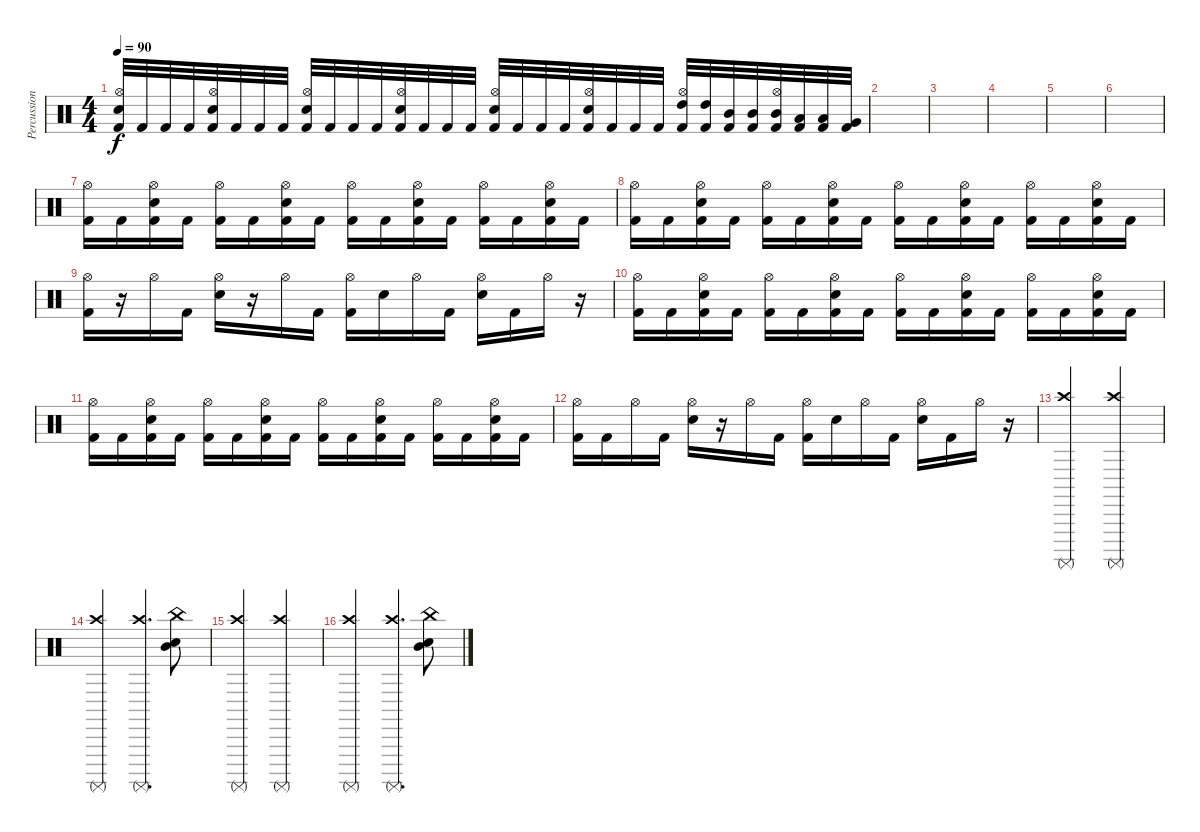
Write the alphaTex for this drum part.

\track ("Percussion" "Percussion") {instrument percussion}
\staff {score}
\articulation defaults
\ts (4 4)
\tempo 90
\clef neutral
\ks c
("Kick (hit) 2" "Hi-Hat (open)" "Electric Snare (hit)").32{dy f} "Kick (hit) 2".32 "Kick (hit) 2".32 "Kick (hit) 2".32 ("Kick (hit) 2" "Hi-Hat (open)" "Electric Snare (hit)").32 "Kick (hit) 2".32 "Kick (hit) 2".32 "Kick (hit) 2".32 ("Kick (hit) 2" "Hi-Hat (open)" "Electric Snare (hit)").32 "Kick (hit) 2".32 "Kick (hit) 2".32 "Kick (hit) 2".32 ("Kick (hit) 2" "Hi-Hat (open)" "Electric Snare (hit)").32 "Kick (hit) 2".32 "Kick (hit) 2".32 "Kick (hit) 2".32 ("Kick (hit) 2" "Hi-Hat (open)" "Electric Snare (hit)").32 "Kick (hit) 2".32 "Kick (hit) 2".32 "Kick (hit) 2".32 ("Kick (hit) 2" "Hi-Hat (open)" "Electric Snare (hit)").32 "Kick (hit) 2".32 "Kick (hit) 2".32 "Kick (hit) 2".32 ("Kick (hit) 2" "High Tom (hit)" "Hi-Hat (open)").32 ("Kick (hit) 2" "High Tom (hit)").32 ("Kick (hit) 2" "Mid Tom (hit)").32 ("Kick (hit) 2" "Mid Tom (hit)").32 ("Kick (hit) 2" "Mid Tom (hit)" "Hi-Hat (open)").32 ("Kick (hit) 2" "Low Tom (hit)").32 ("Kick (hit) 2" "Low Tom (hit)").32 ("Kick (hit) 2" "Very Low Tom (hit)").32 |
|
|
|
|
|
("Kick (hit) 2" "Hi-Hat (open)").16 "Kick (hit) 2".16 ("Kick (hit) 2" "Electric Snare (hit)" "Hi-Hat (open)").16 "Kick (hit) 2".16 ("Kick (hit) 2" "Hi-Hat (open)").16 "Kick (hit) 2".16 ("Kick (hit) 2" "Electric Snare (hit)" "Hi-Hat (open)").16 "Kick (hit) 2".16 ("Kick (hit) 2" "Hi-Hat (open)").16 "Kick (hit) 2".16 ("Kick (hit) 2" "Electric Snare (hit)" "Hi-Hat (open)").16 "Kick (hit) 2".16 ("Kick (hit) 2" "Hi-Hat (open)").16 "Kick (hit) 2".16 ("Kick (hit) 2" "Electric Snare (hit)" "Hi-Hat (open)").16 "Kick (hit) 2".16 |
("Kick (hit) 2" "Hi-Hat (open)").16 "Kick (hit) 2".16 ("Kick (hit) 2" "Electric Snare (hit)" "Hi-Hat (open)").16 "Kick (hit) 2".16 ("Kick (hit) 2" "Hi-Hat (open)").16 "Kick (hit) 2".16 ("Kick (hit) 2" "Electric Snare (hit)" "Hi-Hat (open)").16 "Kick (hit) 2".16 ("Kick (hit) 2" "Hi-Hat (open)").16 "Kick (hit) 2".16 ("Kick (hit) 2" "Electric Snare (hit)" "Hi-Hat (open)").16 "Kick (hit) 2".16 ("Kick (hit) 2" "Hi-Hat (open)").16 "Kick (hit) 2".16 ("Kick (hit) 2" "Electric Snare (hit)" "Hi-Hat (open)").16 "Kick (hit) 2".16 |
("Kick (hit) 2" "Hi-Hat (open)").16 r.16 "Hi-Hat (open)".16 "Kick (hit) 2".16 ("Electric Snare (hit)" "Hi-Hat (open)").16 r.16 "Hi-Hat (open)".16 "Kick (hit) 2".16 ("Kick (hit) 2" "Hi-Hat (open)").16 "Electric Snare (hit)".16 "Hi-Hat (open)".16 "Kick (hit) 2".16 ("Electric Snare (hit)" "Hi-Hat (open)").16 "Kick (hit) 2".16 "Hi-Hat (open)".16 r.16 |
("Kick (hit) 2" "Hi-Hat (open)").16 "Kick (hit) 2".16 ("Kick (hit) 2" "Electric Snare (hit)" "Hi-Hat (open)").16 "Kick (hit) 2".16 ("Kick (hit) 2" "Hi-Hat (open)").16 "Kick (hit) 2".16 ("Kick (hit) 2" "Electric Snare (hit)" "Hi-Hat (open)").16 "Kick (hit) 2".16 ("Kick (hit) 2" "Hi-Hat (open)").16 "Kick (hit) 2".16 ("Kick (hit) 2" "Electric Snare (hit)" "Hi-Hat (open)").16 "Kick (hit) 2".16 ("Kick (hit) 2" "Hi-Hat (open)").16 "Kick (hit) 2".16 ("Kick (hit) 2" "Electric Snare (hit)" "Hi-Hat (open)").16 "Kick (hit) 2".16 |
("Kick (hit) 2" "Hi-Hat (open)").16 "Kick (hit) 2".16 ("Kick (hit) 2" "Electric Snare (hit)" "Hi-Hat (open)").16 "Kick (hit) 2".16 ("Kick (hit) 2" "Hi-Hat (open)").16 "Kick (hit) 2".16 ("Kick (hit) 2" "Electric Snare (hit)" "Hi-Hat (open)").16 "Kick (hit) 2".16 ("Kick (hit) 2" "Hi-Hat (open)").16 "Kick (hit) 2".16 ("Kick (hit) 2" "Electric Snare (hit)" "Hi-Hat (open)").16 "Kick (hit) 2".16 ("Kick (hit) 2" "Hi-Hat (open)").16 "Kick (hit) 2".16 ("Kick (hit) 2" "Electric Snare (hit)" "Hi-Hat (open)").16 "Kick (hit) 2".16 |
("Kick (hit) 2" "Hi-Hat (open)").16 "Kick (hit) 2".16 "Hi-Hat (open)".16 "Kick (hit) 2".16 ("Electric Snare (hit)" "Hi-Hat (open)").16 r.16 "Hi-Hat (open)".16 "Kick (hit) 2".16 ("Kick (hit) 2" "Hi-Hat (open)").16 "Electric Snare (hit)".16 "Hi-Hat (open)".16 "Kick (hit) 2".16 ("Electric Snare (hit)" "Hi-Hat (open)").16 "Kick (hit) 2".16 "Hi-Hat (open)".16 r.16 |
("Surdo (mute)" "Crash high (hit)").2 ("Surdo (mute)" "Crash high (hit)").2 |
("Surdo (mute)" "Crash high (hit)").2 ("Surdo (mute)" "Crash high (hit)").4{d} ("Snare (hit) 2" "Mid Tom (hit)" "China (hit)").8 |
("Surdo (mute)" "Crash high (hit)").2 ("Surdo (mute)" "Crash high (hit)").2 |
("Surdo (mute)" "Crash high (hit)").2 ("Surdo (mute)" "Crash high (hit)").4{d} ("Snare (hit) 2" "Mid Tom (hit)" "China (hit)").8
